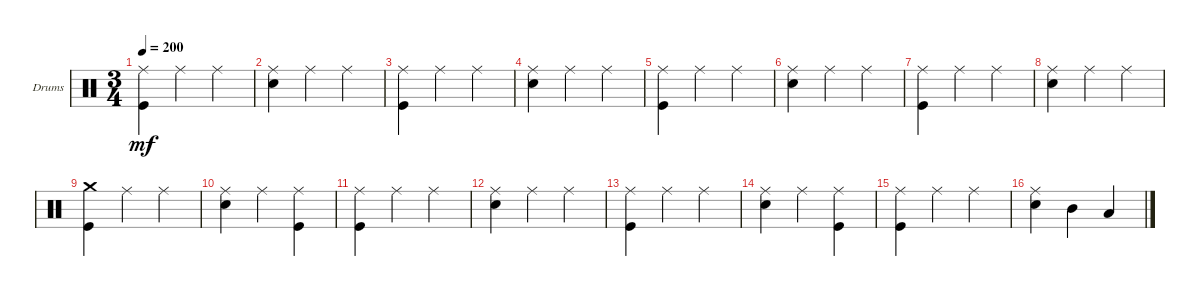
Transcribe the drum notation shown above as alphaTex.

\bracketExtendMode groupsimilarinstruments
\firstSystemTrackNameOrientation horizontal
\otherSystemsTrackNameOrientation horizontal
\track ("Drumkit" "Drums") {instrument percussion}
\staff {score}
\articulation defaults
\ts (3 4)
\tempo 200
\clef neutral
\scale
0.333333
\ks c
("Kick (hit)" "Ride (middle)").4{dy mf} "Ride (middle)".4 "Ride (middle)".4 |
\scale
0.333333 ("Snare (hit) 2" "Ride (middle)").4 "Ride (middle)".4 "Ride (middle)".4 |
\scale
0.333333 ("Kick (hit)" "Ride (middle)").4 "Ride (middle)".4 "Ride (middle)".4 |
\scale
0.333333 ("Snare (hit) 2" "Ride (middle)").4 "Ride (middle)".4 "Ride (middle)".4 |
\scale
0.333333 ("Kick (hit)" "Ride (middle)").4 "Ride (middle)".4 "Ride (middle)".4 |
\scale
0.333333 ("Snare (hit) 2" "Ride (middle)").4 "Ride (middle)".4 "Ride (middle)".4 |
\scale
0.333333 ("Kick (hit)" "Ride (middle)").4 "Ride (middle)".4 "Ride (middle)".4 |
\scale
0.333333 ("Snare (hit) 2" "Ride (middle)").4 "Ride (middle)".4 "Ride (middle)".4 |
\scale
0.333333 ("Kick (hit)" "Crash medium (hit)").4 "Ride (middle)".4 "Ride (middle)".4 |
\scale
0.333333 ("Snare (hit) 2" "Ride (middle)").4 "Ride (middle)".4 ("Ride (middle)" "Kick (hit)").4 |
\scale
0.333333 ("Kick (hit)" "Ride (middle)").4 "Ride (middle)".4 "Ride (middle)".4 |
\scale
0.333333 ("Snare (hit) 2" "Ride (middle)").4 "Ride (middle)".4 "Ride (middle)".4 |
\scale
0.333333 ("Kick (hit)" "Ride (middle)").4 "Ride (middle)".4 "Ride (middle)".4 |
\scale
0.333333 ("Snare (hit) 2" "Ride (middle)").4 "Ride (middle)".4 ("Ride (middle)" "Kick (hit)").4 |
\scale
0.333333 ("Kick (hit)" "Ride (middle)").4 "Ride (middle)".4 "Ride (middle)".4 |
\scale
0.333333 ("Snare (hit) 2" "Ride (middle)").4 "Mid Tom (hit)".4 "Low Tom (hit)".4
